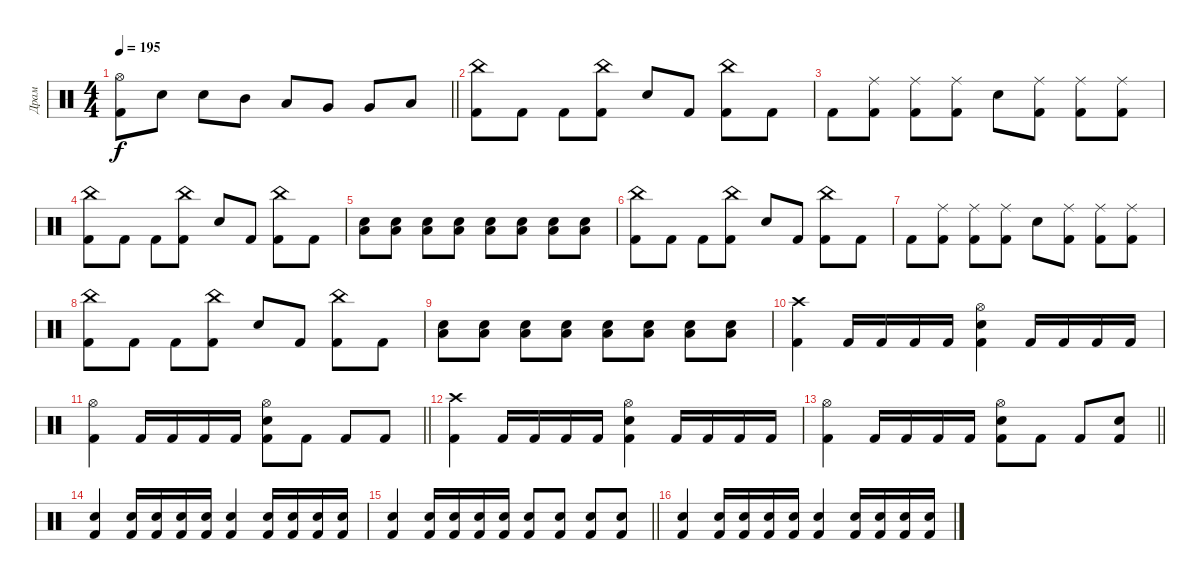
\track ("Драм" "Драм") {instrument percussion}
\staff {score}
\articulation defaults
\ts (4 4)
\tempo 195
\clef neutral
\barLineRight lightlight
\ks c
("Hi-Hat (open)" "Kick (hit) 2").8{dy f} "Snare (hit) 2".8 "Snare (hit) 2".8 "Mid Tom (hit)".8 "Low Tom (hit)".8 "Very Low Tom (hit)".8 "Very Low Tom (hit)".8 "Low Floor Tom (hit)".8 |
("Kick (hit) 2" "China (hit)").8 "Kick (hit) 2".8 "Kick (hit) 2".8 ("Kick (hit) 2" "China (hit)").8 "Snare (hit) 2".8 "Kick (hit) 2".8 ("Kick (hit) 2" "China (hit)").8 "Kick (hit) 2".8 |
"Kick (hit) 2".8 ("Ride (middle)" "Kick (hit) 2").8 ("Ride (middle)" "Kick (hit) 2").8 ("Ride (middle)" "Kick (hit) 2").8 "Snare (hit) 2".8 ("Ride (middle)" "Kick (hit) 2").8 ("Ride (middle)" "Kick (hit) 2").8 ("Ride (middle)" "Kick (hit) 2").8 |
("Kick (hit) 2" "China (hit)").8 "Kick (hit) 2".8 "Kick (hit) 2".8 ("Kick (hit) 2" "China (hit)").8 "Snare (hit) 2".8 "Kick (hit) 2".8 ("Kick (hit) 2" "China (hit)").8 "Kick (hit) 2".8 |
("Low Tom (hit)" "Snare (hit) 2").8 ("Low Tom (hit)" "Snare (hit) 2").8 ("Low Tom (hit)" "Snare (hit) 2").8 ("Low Tom (hit)" "Snare (hit) 2").8 ("Low Tom (hit)" "Snare (hit) 2").8 ("Low Tom (hit)" "Snare (hit) 2").8 ("Low Tom (hit)" "Snare (hit) 2").8 ("Low Tom (hit)" "Snare (hit) 2").8 |
("Kick (hit) 2" "China (hit)").8 "Kick (hit) 2".8 "Kick (hit) 2".8 ("Kick (hit) 2" "China (hit)").8 "Snare (hit) 2".8 "Kick (hit) 2".8 ("Kick (hit) 2" "China (hit)").8 "Kick (hit) 2".8 |
"Kick (hit) 2".8 ("Ride (middle)" "Kick (hit) 2").8 ("Ride (middle)" "Kick (hit) 2").8 ("Ride (middle)" "Kick (hit) 2").8 "Snare (hit) 2".8 ("Ride (middle)" "Kick (hit) 2").8 ("Ride (middle)" "Kick (hit) 2").8 ("Ride (middle)" "Kick (hit) 2").8 |
("Kick (hit) 2" "China (hit)").8 "Kick (hit) 2".8 "Kick (hit) 2".8 ("Kick (hit) 2" "China (hit)").8 "Snare (hit) 2".8 "Kick (hit) 2".8 ("Kick (hit) 2" "China (hit)").8 "Kick (hit) 2".8 |
("Low Tom (hit)" "Snare (hit) 2").8 ("Low Tom (hit)" "Snare (hit) 2").8 ("Low Tom (hit)" "Snare (hit) 2").8 ("Low Tom (hit)" "Snare (hit) 2").8 ("Low Tom (hit)" "Snare (hit) 2").8 ("Low Tom (hit)" "Snare (hit) 2").8 ("Low Tom (hit)" "Snare (hit) 2").8 ("Low Tom (hit)" "Snare (hit) 2").8 |
("Kick (hit) 2" "Crash high (hit)").4 "Kick (hit) 2".16 "Kick (hit) 2".16 "Kick (hit) 2".16 "Kick (hit) 2".16 ("Hi-Hat (open)" "Snare (hit) 2" "Kick (hit) 2").4 "Kick (hit) 2".16 "Kick (hit) 2".16 "Kick (hit) 2".16 "Kick (hit) 2".16 |
\barLineRight lightlight
("Hi-Hat (open)" "Kick (hit) 2").4 "Kick (hit) 2".16 "Kick (hit) 2".16 "Kick (hit) 2".16 "Kick (hit) 2".16 ("Hi-Hat (open)" "Snare (hit) 2" "Kick (hit) 2").8 "Kick (hit) 2".8 "Kick (hit) 2".8 "Kick (hit) 2".8 |
("Kick (hit) 2" "Crash high (hit)").4 "Kick (hit) 2".16 "Kick (hit) 2".16 "Kick (hit) 2".16 "Kick (hit) 2".16 ("Hi-Hat (open)" "Snare (hit) 2" "Kick (hit) 2").4 "Kick (hit) 2".16 "Kick (hit) 2".16 "Kick (hit) 2".16 "Kick (hit) 2".16 |
\barLineRight lightlight
("Hi-Hat (open)" "Kick (hit) 2").4 "Kick (hit) 2".16 "Kick (hit) 2".16 "Kick (hit) 2".16 "Kick (hit) 2".16 ("Hi-Hat (open)" "Snare (hit) 2" "Kick (hit) 2").8 "Kick (hit) 2".8 "Kick (hit) 2".8 ("Snare (hit) 2" "Kick (hit) 2").8 |
("Snare (hit) 2" "Kick (hit) 2").4 ("Snare (hit) 2" "Kick (hit) 2").16 ("Snare (hit) 2" "Kick (hit) 2").16 ("Snare (hit) 2" "Kick (hit) 2").16 ("Snare (hit) 2" "Kick (hit) 2").16 ("Snare (hit) 2" "Kick (hit) 2").4 ("Snare (hit) 2" "Kick (hit) 2").16 ("Snare (hit) 2" "Kick (hit) 2").16 ("Snare (hit) 2" "Kick (hit) 2").16 ("Snare (hit) 2" "Kick (hit) 2").16 |
\barLineRight lightlight
("Snare (hit) 2" "Kick (hit) 2").4 ("Snare (hit) 2" "Kick (hit) 2").16 ("Snare (hit) 2" "Kick (hit) 2").16 ("Snare (hit) 2" "Kick (hit) 2").16 ("Snare (hit) 2" "Kick (hit) 2").16 ("Snare (hit) 2" "Kick (hit) 2").8 ("Snare (hit) 2" "Kick (hit) 2").8 ("Snare (hit) 2" "Kick (hit) 2").8 ("Snare (hit) 2" "Kick (hit) 2").8 |
("Snare (hit) 2" "Kick (hit) 2").4 ("Snare (hit) 2" "Kick (hit) 2").16 ("Snare (hit) 2" "Kick (hit) 2").16 ("Snare (hit) 2" "Kick (hit) 2").16 ("Snare (hit) 2" "Kick (hit) 2").16 ("Snare (hit) 2" "Kick (hit) 2").4 ("Snare (hit) 2" "Kick (hit) 2").16 ("Snare (hit) 2" "Kick (hit) 2").16 ("Snare (hit) 2" "Kick (hit) 2").16 ("Snare (hit) 2" "Kick (hit) 2").16
